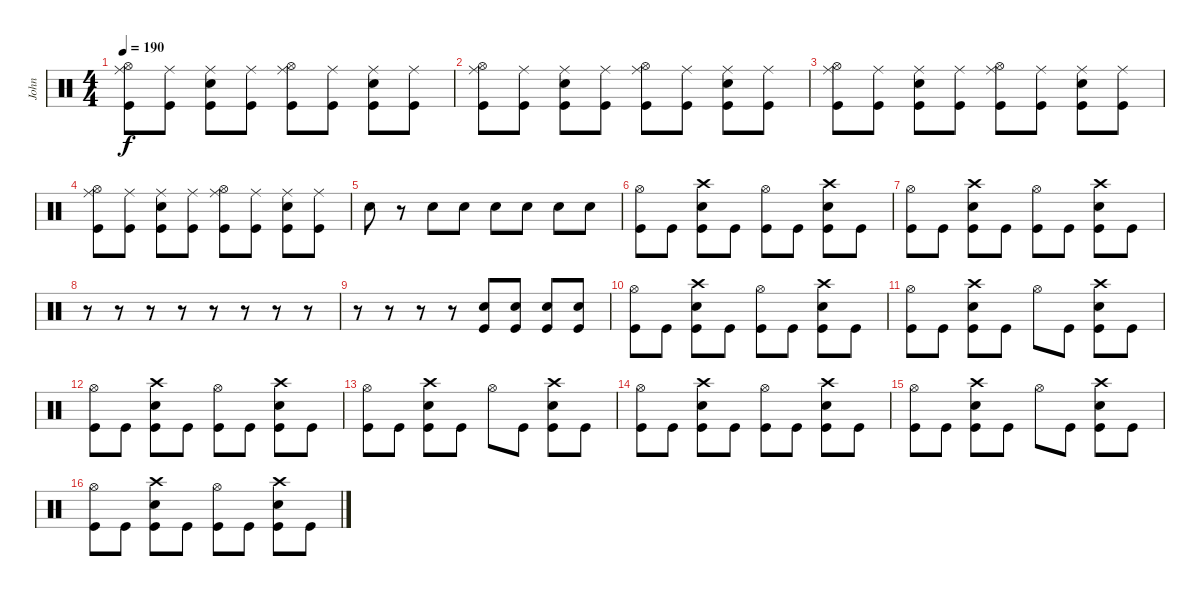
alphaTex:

\track ("John" "John") {instrument percussion}
\staff {score}
\articulation defaults
\ts (4 4)
\tempo 190
\clef neutral
\ks c
("Kick (hit)" "Ride (middle)" "Hi-Hat (open)").8{dy f} ("Kick (hit)" "Ride (middle)").8 ("Kick (hit)" "Ride (middle)" "Snare (hit) 2").8 ("Kick (hit)" "Ride (middle)").8 ("Kick (hit)" "Ride (middle)" "Hi-Hat (open)").8 ("Kick (hit)" "Ride (middle)").8 ("Kick (hit)" "Ride (middle)" "Snare (hit) 2").8 ("Kick (hit)" "Ride (middle)").8 |
("Kick (hit)" "Ride (middle)" "Hi-Hat (open)").8 ("Kick (hit)" "Ride (middle)").8 ("Kick (hit)" "Ride (middle)" "Snare (hit) 2").8 ("Kick (hit)" "Ride (middle)").8 ("Kick (hit)" "Ride (middle)" "Hi-Hat (open)").8 ("Kick (hit)" "Ride (middle)").8 ("Kick (hit)" "Ride (middle)" "Snare (hit) 2").8 ("Kick (hit)" "Ride (middle)").8 |
("Kick (hit)" "Ride (middle)" "Hi-Hat (open)").8 ("Kick (hit)" "Ride (middle)").8 ("Kick (hit)" "Ride (middle)" "Snare (hit) 2").8 ("Kick (hit)" "Ride (middle)").8 ("Kick (hit)" "Ride (middle)" "Hi-Hat (open)").8 ("Kick (hit)" "Ride (middle)").8 ("Kick (hit)" "Ride (middle)" "Snare (hit) 2").8 ("Kick (hit)" "Ride (middle)").8 |
("Kick (hit)" "Ride (middle)" "Hi-Hat (open)").8 ("Kick (hit)" "Ride (middle)").8 ("Kick (hit)" "Ride (middle)" "Snare (hit) 2").8 ("Kick (hit)" "Ride (middle)").8 ("Kick (hit)" "Ride (middle)" "Hi-Hat (open)").8 ("Kick (hit)" "Ride (middle)").8 ("Kick (hit)" "Ride (middle)" "Snare (hit) 2").8 ("Kick (hit)" "Ride (middle)").8 |
"Snare (hit) 2".8 r.8 "Snare (hit) 2".8 "Snare (hit) 2".8 "Snare (hit) 2".8 "Snare (hit) 2".8 "Snare (hit) 2".8 "Snare (hit) 2".8 |
("Kick (hit)" "Hi-Hat (open)").8 "Kick (hit)".8 ("Kick (hit)" "Snare (hit) 2" "Crash high (hit)").8 "Kick (hit)".8 ("Kick (hit)" "Hi-Hat (open)").8 "Kick (hit)".8 ("Kick (hit)" "Snare (hit) 2" "Crash high (hit)").8 "Kick (hit)".8 |
("Kick (hit)" "Hi-Hat (open)").8 "Kick (hit)".8 ("Kick (hit)" "Snare (hit) 2" "Crash high (hit)").8 "Kick (hit)".8 ("Kick (hit)" "Hi-Hat (open)").8 "Kick (hit)".8 ("Kick (hit)" "Snare (hit) 2" "Crash high (hit)").8 "Kick (hit)".8 |
r.8 r.8 r.8 r.8 r.8 r.8 r.8 r.8 |
r.8 r.8 r.8 r.8 ("Snare (hit) 2" "Kick (hit)").8 ("Snare (hit) 2" "Kick (hit)").8 ("Snare (hit) 2" "Kick (hit)").8 ("Snare (hit) 2" "Kick (hit)").8 |
("Kick (hit)" "Hi-Hat (open)").8 "Kick (hit)".8 ("Kick (hit)" "Snare (hit) 2" "Crash high (hit)").8 "Kick (hit)".8 ("Kick (hit)" "Hi-Hat (open)").8 "Kick (hit)".8 ("Kick (hit)" "Snare (hit) 2" "Crash high (hit)").8 "Kick (hit)".8 |
("Kick (hit)" "Hi-Hat (open)").8 "Kick (hit)".8 ("Kick (hit)" "Snare (hit) 2" "Crash high (hit)").8 "Kick (hit)".8 "Hi-Hat (open)".8 "Kick (hit)".8 ("Kick (hit)" "Snare (hit) 2" "Crash high (hit)").8 "Kick (hit)".8 |
("Kick (hit)" "Hi-Hat (open)").8 "Kick (hit)".8 ("Kick (hit)" "Snare (hit) 2" "Crash high (hit)").8 "Kick (hit)".8 ("Kick (hit)" "Hi-Hat (open)").8 "Kick (hit)".8 ("Kick (hit)" "Snare (hit) 2" "Crash high (hit)").8 "Kick (hit)".8 |
("Kick (hit)" "Hi-Hat (open)").8 "Kick (hit)".8 ("Kick (hit)" "Snare (hit) 2" "Crash high (hit)").8 "Kick (hit)".8 "Hi-Hat (open)".8 "Kick (hit)".8 ("Kick (hit)" "Snare (hit) 2" "Crash high (hit)").8 "Kick (hit)".8 |
("Kick (hit)" "Hi-Hat (open)").8 "Kick (hit)".8 ("Kick (hit)" "Snare (hit) 2" "Crash high (hit)").8 "Kick (hit)".8 ("Kick (hit)" "Hi-Hat (open)").8 "Kick (hit)".8 ("Kick (hit)" "Snare (hit) 2" "Crash high (hit)").8 "Kick (hit)".8 |
("Kick (hit)" "Hi-Hat (open)").8 "Kick (hit)".8 ("Kick (hit)" "Snare (hit) 2" "Crash high (hit)").8 "Kick (hit)".8 "Hi-Hat (open)".8 "Kick (hit)".8 ("Kick (hit)" "Snare (hit) 2" "Crash high (hit)").8 "Kick (hit)".8 |
("Kick (hit)" "Hi-Hat (open)").8 "Kick (hit)".8 ("Kick (hit)" "Snare (hit) 2" "Crash high (hit)").8 "Kick (hit)".8 ("Kick (hit)" "Hi-Hat (open)").8 "Kick (hit)".8 ("Kick (hit)" "Snare (hit) 2" "Crash high (hit)").8 "Kick (hit)".8
